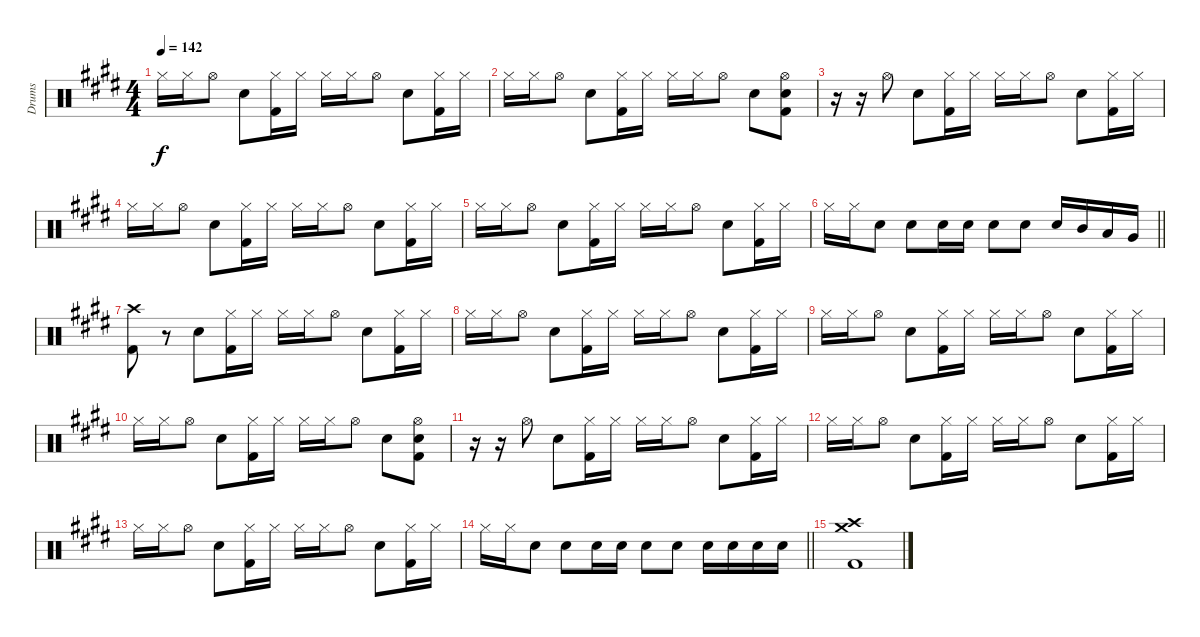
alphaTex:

\track ("Drums" "Drums") {instrument percussion}
\staff {score}
\articulation defaults
\ts (4 4)
\tempo 142
\clef neutral
\ks e "Hi-Hat (closed)".16{dy f} "Hi-Hat (closed)".16 "Hi-Hat (open)".8 "Electric Snare (hit)".8
("Hi-Hat (closed)" "Kick (hit) 2").16 "Hi-Hat (closed)".16 "Hi-Hat (closed)".16 "Hi-Hat (closed)".16 "Hi-Hat (open)".8 "Electric Snare (hit)".8 ("Hi-Hat (closed)" "Kick (hit) 2").16 "Hi-Hat (closed)".16 |
"Hi-Hat (closed)".16 "Hi-Hat (closed)".16 "Hi-Hat (open)".8 "Electric Snare (hit)".8 ("Hi-Hat (closed)" "Kick (hit) 2").16 "Hi-Hat (closed)".16 "Hi-Hat (closed)".16 "Hi-Hat (closed)".16 "Hi-Hat (open)".8 "Electric Snare (hit)".8 ("Hi-Hat (open)" "Electric Snare (hit)" "Kick (hit) 2").8 |
r.16 r.16 "Hi-Hat (open)".8 "Electric Snare (hit)".8 ("Hi-Hat (closed)" "Kick (hit) 2").16 "Hi-Hat (closed)".16 "Hi-Hat (closed)".16 "Hi-Hat (closed)".16 "Hi-Hat (open)".8 "Electric Snare (hit)".8 ("Hi-Hat (closed)" "Kick (hit) 2").16 "Hi-Hat (closed)".16 |
"Hi-Hat (closed)".16 "Hi-Hat (closed)".16 "Hi-Hat (open)".8 "Electric Snare (hit)".8 ("Hi-Hat (closed)" "Kick (hit) 2").16 "Hi-Hat (closed)".16 "Hi-Hat (closed)".16 "Hi-Hat (closed)".16 "Hi-Hat (open)".8 "Electric Snare (hit)".8 ("Hi-Hat (closed)" "Kick (hit) 2").16 "Hi-Hat (closed)".16 |
"Hi-Hat (closed)".16 "Hi-Hat (closed)".16 "Hi-Hat (open)".8 "Electric Snare (hit)".8 ("Hi-Hat (closed)" "Kick (hit) 2").16 "Hi-Hat (closed)".16 "Hi-Hat (closed)".16 "Hi-Hat (closed)".16 "Hi-Hat (open)".8 "Electric Snare (hit)".8 ("Hi-Hat (closed)" "Kick (hit) 2").16 "Hi-Hat (closed)".16 |
\barLineRight lightlight "Hi-Hat (closed)".16 "Hi-Hat (closed)".16 "Electric Snare (hit)".8 "Electric Snare (hit)".8 "Electric Snare (hit)".16 "Electric Snare (hit)".16 "Electric Snare (hit)".8 "Electric Snare (hit)".8 "Electric Snare (hit)".16 "Mid Tom (hit)".16 "Low Tom (hit)".16 "Very Low Tom (hit)".16
|
("Crash high (hit)" "Kick (hit) 2").8 r.8 "Electric Snare (hit)".8 ("Hi-Hat (closed)" "Kick (hit) 2").16 "Hi-Hat (closed)".16 "Hi-Hat (closed)".16 "Hi-Hat (closed)".16 "Hi-Hat (open)".8 "Electric Snare (hit)".8 ("Hi-Hat (closed)" "Kick (hit) 2").16 "Hi-Hat (closed)".16 |
"Hi-Hat (closed)".16 "Hi-Hat (closed)".16 "Hi-Hat (open)".8 "Electric Snare (hit)".8 ("Hi-Hat (closed)" "Kick (hit) 2").16 "Hi-Hat (closed)".16 "Hi-Hat (closed)".16 "Hi-Hat (closed)".16 "Hi-Hat (open)".8 "Electric Snare (hit)".8 ("Hi-Hat (closed)" "Kick (hit) 2").16 "Hi-Hat (closed)".16 |
"Hi-Hat (closed)".16 "Hi-Hat (closed)".16 "Hi-Hat (open)".8 "Electric Snare (hit)".8 ("Hi-Hat (closed)" "Kick (hit) 2").16 "Hi-Hat (closed)".16 "Hi-Hat (closed)".16 "Hi-Hat (closed)".16 "Hi-Hat (open)".8 "Electric Snare (hit)".8 ("Hi-Hat (closed)" "Kick (hit) 2").16 "Hi-Hat (closed)".16 |
"Hi-Hat (closed)".16 "Hi-Hat (closed)".16 "Hi-Hat (open)".8 "Electric Snare (hit)".8 ("Hi-Hat (closed)" "Kick (hit) 2").16 "Hi-Hat (closed)".16 "Hi-Hat (closed)".16 "Hi-Hat (closed)".16 "Hi-Hat (open)".8 "Electric Snare (hit)".8 ("Hi-Hat (open)" "Electric Snare (hit)" "Kick (hit) 2").8 |
r.16 r.16 "Hi-Hat (open)".8 "Electric Snare (hit)".8 ("Hi-Hat (closed)" "Kick (hit) 2").16 "Hi-Hat (closed)".16 "Hi-Hat (closed)".16 "Hi-Hat (closed)".16 "Hi-Hat (open)".8 "Electric Snare (hit)".8 ("Hi-Hat (closed)" "Kick (hit) 2").16 "Hi-Hat (closed)".16 |
"Hi-Hat (closed)".16 "Hi-Hat (closed)".16 "Hi-Hat (open)".8 "Electric Snare (hit)".8 ("Hi-Hat (closed)" "Kick (hit) 2").16 "Hi-Hat (closed)".16 "Hi-Hat (closed)".16 "Hi-Hat (closed)".16 "Hi-Hat (open)".8 "Electric Snare (hit)".8 ("Hi-Hat (closed)" "Kick (hit) 2").16 "Hi-Hat (closed)".16 |
"Hi-Hat (closed)".16 "Hi-Hat (closed)".16 "Hi-Hat (open)".8 "Electric Snare (hit)".8 ("Hi-Hat (closed)" "Kick (hit) 2").16 "Hi-Hat (closed)".16 "Hi-Hat (closed)".16 "Hi-Hat (closed)".16 "Hi-Hat (open)".8 "Electric Snare (hit)".8 ("Hi-Hat (closed)" "Kick (hit) 2").16 "Hi-Hat (closed)".16 |
\barLineRight lightlight "Hi-Hat (closed)".16 "Hi-Hat (closed)".16 "Electric Snare (hit)".8 "Electric Snare (hit)".8 "Electric Snare (hit)".16 "Electric Snare (hit)".16 "Electric Snare (hit)".8 "Electric Snare (hit)".8 "Electric Snare (hit)".16 "Electric Snare (hit)".16 "Electric Snare (hit)".16 "Electric Snare (hit)".16
|
("Crash medium (hit)" "Crash high (hit)" "Kick (hit) 2").1
